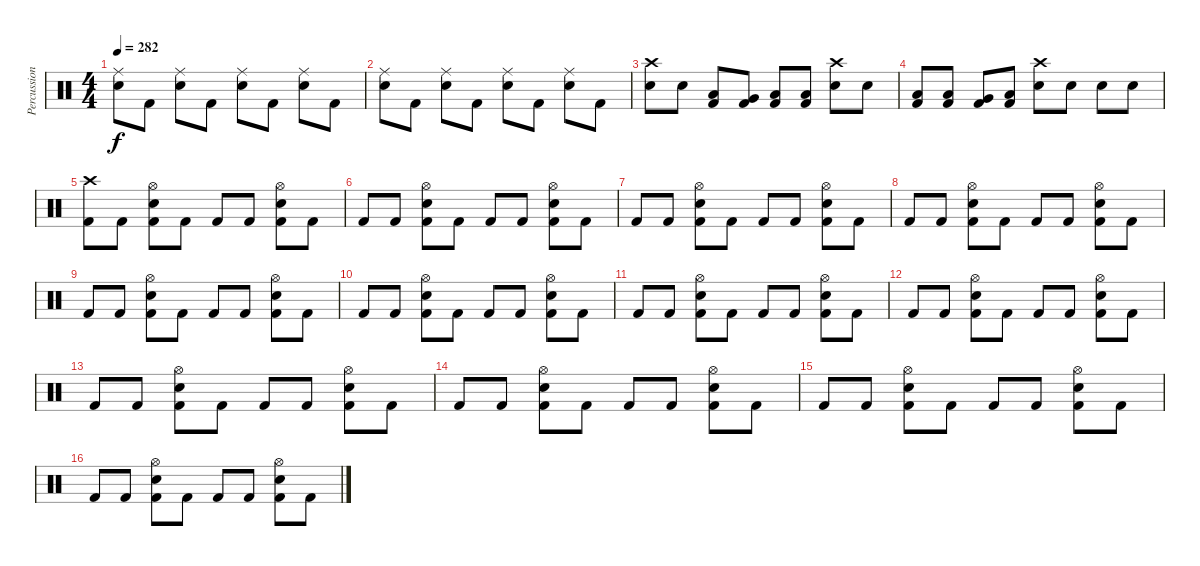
\track ("Percussion" "Percussion") {instrument percussion}
\staff {score}
\articulation defaults
\ts (4 4)
\tempo 282
\clef neutral
\ks c
("Snare (hit) 2" "Ride (middle)").8{dy f} "Kick (hit) 2".8 ("Snare (hit) 2" "Ride (middle)").8 "Kick (hit) 2".8 ("Snare (hit) 2" "Ride (middle)").8 "Kick (hit) 2".8 ("Snare (hit) 2" "Ride (middle)").8 "Kick (hit) 2".8 |
("Snare (hit) 2" "Ride (middle)").8 "Kick (hit) 2".8 ("Snare (hit) 2" "Ride (middle)").8 "Kick (hit) 2".8 ("Snare (hit) 2" "Ride (middle)").8 "Kick (hit) 2".8 ("Snare (hit) 2" "Ride (middle)").8 "Kick (hit) 2".8 |
("Snare (hit) 2" "Crash high (hit)").8 "Snare (hit)"{x}.8 ("Kick (hit) 2" "Low Tom (hit)").8 ("Kick (hit) 2" "Very Low Tom (hit)").8 ("Kick (hit) 2" "Low Floor Tom (hit)").8 ("Kick (hit) 2" "Low Floor Tom (hit)").8 ("Snare (hit) 2" "Crash high (hit)").8 "Snare (hit)"{x}.8 |
("Kick (hit) 2" "Low Tom (hit)").8 ("Kick (hit) 2" "Low Tom (hit)").8 ("Kick (hit) 2" "Very Low Tom (hit)").8 ("Kick (hit) 2" "Low Floor Tom (hit)").8 ("Snare (hit) 2" "Crash high (hit)").8 "Snare (hit)"{x}.8 "Snare (hit)"{x}.8 "Snare (hit)"{x}.8 |
("Kick (hit) 2" "Crash high (hit)").8 "Kick (hit) 2".8 ("Kick (hit) 2" "Snare (hit) 2" "Hi-Hat (open)").8 "Kick (hit) 2".8 "Kick (hit) 2".8 "Kick (hit) 2".8 ("Kick (hit) 2" "Snare (hit) 2" "Hi-Hat (open)").8 "Kick (hit) 2".8 |
"Kick (hit) 2".8 "Kick (hit) 2".8 ("Kick (hit) 2" "Snare (hit) 2" "Hi-Hat (open)").8 "Kick (hit) 2".8 "Kick (hit) 2".8 "Kick (hit) 2".8 ("Kick (hit) 2" "Snare (hit) 2" "Hi-Hat (open)").8 "Kick (hit) 2".8 |
"Kick (hit) 2".8 "Kick (hit) 2".8 ("Kick (hit) 2" "Snare (hit) 2" "Hi-Hat (open)").8 "Kick (hit) 2".8 "Kick (hit) 2".8 "Kick (hit) 2".8 ("Kick (hit) 2" "Snare (hit) 2" "Hi-Hat (open)").8 "Kick (hit) 2".8 |
"Kick (hit) 2".8 "Kick (hit) 2".8 ("Kick (hit) 2" "Snare (hit) 2" "Hi-Hat (open)").8 "Kick (hit) 2".8 "Kick (hit) 2".8 "Kick (hit) 2".8 ("Kick (hit) 2" "Snare (hit) 2" "Hi-Hat (open)").8 "Kick (hit) 2".8 |
"Kick (hit) 2".8 "Kick (hit) 2".8 ("Kick (hit) 2" "Snare (hit) 2" "Hi-Hat (open)").8 "Kick (hit) 2".8 "Kick (hit) 2".8 "Kick (hit) 2".8 ("Kick (hit) 2" "Snare (hit) 2" "Hi-Hat (open)").8 "Kick (hit) 2".8 |
"Kick (hit) 2".8 "Kick (hit) 2".8 ("Kick (hit) 2" "Snare (hit) 2" "Hi-Hat (open)").8 "Kick (hit) 2".8 "Kick (hit) 2".8 "Kick (hit) 2".8 ("Kick (hit) 2" "Snare (hit) 2" "Hi-Hat (open)").8 "Kick (hit) 2".8 |
"Kick (hit) 2".8 "Kick (hit) 2".8 ("Kick (hit) 2" "Snare (hit) 2" "Hi-Hat (open)").8 "Kick (hit) 2".8 "Kick (hit) 2".8 "Kick (hit) 2".8 ("Kick (hit) 2" "Snare (hit) 2" "Hi-Hat (open)").8 "Kick (hit) 2".8 |
"Kick (hit) 2".8 "Kick (hit) 2".8 ("Kick (hit) 2" "Snare (hit) 2" "Hi-Hat (open)").8 "Kick (hit) 2".8 "Kick (hit) 2".8 "Kick (hit) 2".8 ("Kick (hit) 2" "Snare (hit) 2" "Hi-Hat (open)").8 "Kick (hit) 2".8 |
"Kick (hit) 2".8 "Kick (hit) 2".8 ("Kick (hit) 2" "Snare (hit) 2" "Hi-Hat (open)").8 "Kick (hit) 2".8 "Kick (hit) 2".8 "Kick (hit) 2".8 ("Kick (hit) 2" "Snare (hit) 2" "Hi-Hat (open)").8 "Kick (hit) 2".8 |
"Kick (hit) 2".8 "Kick (hit) 2".8 ("Kick (hit) 2" "Snare (hit) 2" "Hi-Hat (open)").8 "Kick (hit) 2".8 "Kick (hit) 2".8 "Kick (hit) 2".8 ("Kick (hit) 2" "Snare (hit) 2" "Hi-Hat (open)").8 "Kick (hit) 2".8 |
"Kick (hit) 2".8 "Kick (hit) 2".8 ("Kick (hit) 2" "Snare (hit) 2" "Hi-Hat (open)").8 "Kick (hit) 2".8 "Kick (hit) 2".8 "Kick (hit) 2".8 ("Kick (hit) 2" "Snare (hit) 2" "Hi-Hat (open)").8 "Kick (hit) 2".8 |
"Kick (hit) 2".8 "Kick (hit) 2".8 ("Kick (hit) 2" "Snare (hit) 2" "Hi-Hat (open)").8 "Kick (hit) 2".8 "Kick (hit) 2".8 "Kick (hit) 2".8 ("Kick (hit) 2" "Snare (hit) 2" "Hi-Hat (open)").8 "Kick (hit) 2".8
